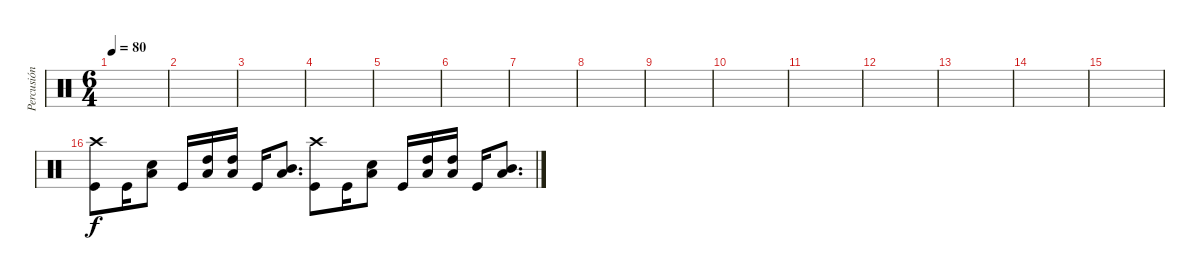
\track ("Percusión" "Percusión") {instrument percussion}
\staff {score}
\articulation defaults
\ts (6 4)
\tempo 80
\clef neutral
\ks c
|
|
|
|
|
|
|
|
|
|
|
|
|
|
|
("Kick (hit)" "Crash high (hit)").8 "Kick (hit)".16 ("Snare (hit) 2" "Low Tom (hit)").8 "Kick (hit)".16 ("Low Tom (hit)" "High Tom (hit)").16 ("Low Tom (hit)" "High Tom (hit)").16 "Kick (hit)".16 ("Low Tom (hit)" "Mid Tom (hit)").8{d} ("Kick (hit)" "Crash high (hit)").8 "Kick (hit)".16 ("Snare (hit) 2" "Low Tom (hit)").8 "Kick (hit)".16 ("Low Tom (hit)" "High Tom (hit)").16 ("Low Tom (hit)" "High Tom (hit)").16 "Kick (hit)".16 ("Low Tom (hit)" "Mid Tom (hit)").8{d}
